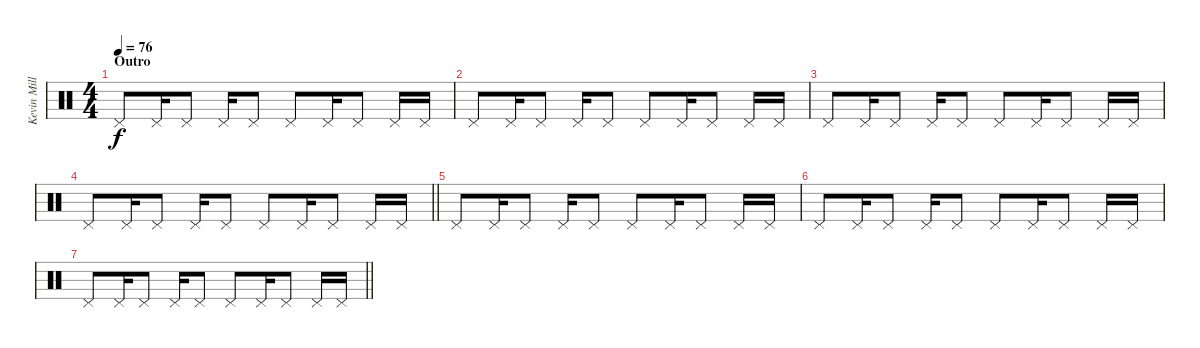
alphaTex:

\track ("Kevin Miller (Drums)" "Kevin Mill") {instrument percussion}
\staff {score}
\articulation defaults
\ts (4 4)
\section ("" "Outro")
\tempo 76
\clef neutral
\ks c "Pedal Hi-Hat (hit)".8{dy f} "Pedal Hi-Hat (hit)".16 "Pedal Hi-Hat (hit)".8 "Pedal Hi-Hat (hit)".16 "Pedal Hi-Hat (hit)".8 "Pedal Hi-Hat (hit)".8 "Pedal Hi-Hat (hit)".16 "Pedal Hi-Hat (hit)".8 "Pedal Hi-Hat (hit)".16 "Pedal Hi-Hat (hit)".16
|
"Pedal Hi-Hat (hit)".8 "Pedal Hi-Hat (hit)".16 "Pedal Hi-Hat (hit)".8 "Pedal Hi-Hat (hit)".16 "Pedal Hi-Hat (hit)".8 "Pedal Hi-Hat (hit)".8 "Pedal Hi-Hat (hit)".16 "Pedal Hi-Hat (hit)".8 "Pedal Hi-Hat (hit)".16 "Pedal Hi-Hat (hit)".16 |
"Pedal Hi-Hat (hit)".8 "Pedal Hi-Hat (hit)".16 "Pedal Hi-Hat (hit)".8 "Pedal Hi-Hat (hit)".16 "Pedal Hi-Hat (hit)".8 "Pedal Hi-Hat (hit)".8 "Pedal Hi-Hat (hit)".16 "Pedal Hi-Hat (hit)".8 "Pedal Hi-Hat (hit)".16 "Pedal Hi-Hat (hit)".16 |
\barLineRight lightlight "Pedal Hi-Hat (hit)".8 "Pedal Hi-Hat (hit)".16 "Pedal Hi-Hat (hit)".8 "Pedal Hi-Hat (hit)".16 "Pedal Hi-Hat (hit)".8 "Pedal Hi-Hat (hit)".8 "Pedal Hi-Hat (hit)".16 "Pedal Hi-Hat (hit)".8 "Pedal Hi-Hat (hit)".16 "Pedal Hi-Hat (hit)".16
|
"Pedal Hi-Hat (hit)".8 "Pedal Hi-Hat (hit)".16 "Pedal Hi-Hat (hit)".8 "Pedal Hi-Hat (hit)".16 "Pedal Hi-Hat (hit)".8 "Pedal Hi-Hat (hit)".8 "Pedal Hi-Hat (hit)".16 "Pedal Hi-Hat (hit)".8 "Pedal Hi-Hat (hit)".16 "Pedal Hi-Hat (hit)".16 |
"Pedal Hi-Hat (hit)".8 "Pedal Hi-Hat (hit)".16 "Pedal Hi-Hat (hit)".8 "Pedal Hi-Hat (hit)".16 "Pedal Hi-Hat (hit)".8 "Pedal Hi-Hat (hit)".8 "Pedal Hi-Hat (hit)".16 "Pedal Hi-Hat (hit)".8 "Pedal Hi-Hat (hit)".16 "Pedal Hi-Hat (hit)".16 |
\barLineRight lightlight "Pedal Hi-Hat (hit)".8 "Pedal Hi-Hat (hit)".16 "Pedal Hi-Hat (hit)".8 "Pedal Hi-Hat (hit)".16 "Pedal Hi-Hat (hit)".8 "Pedal Hi-Hat (hit)".8 "Pedal Hi-Hat (hit)".16 "Pedal Hi-Hat (hit)".8 "Pedal Hi-Hat (hit)".16 "Pedal Hi-Hat (hit)".16
